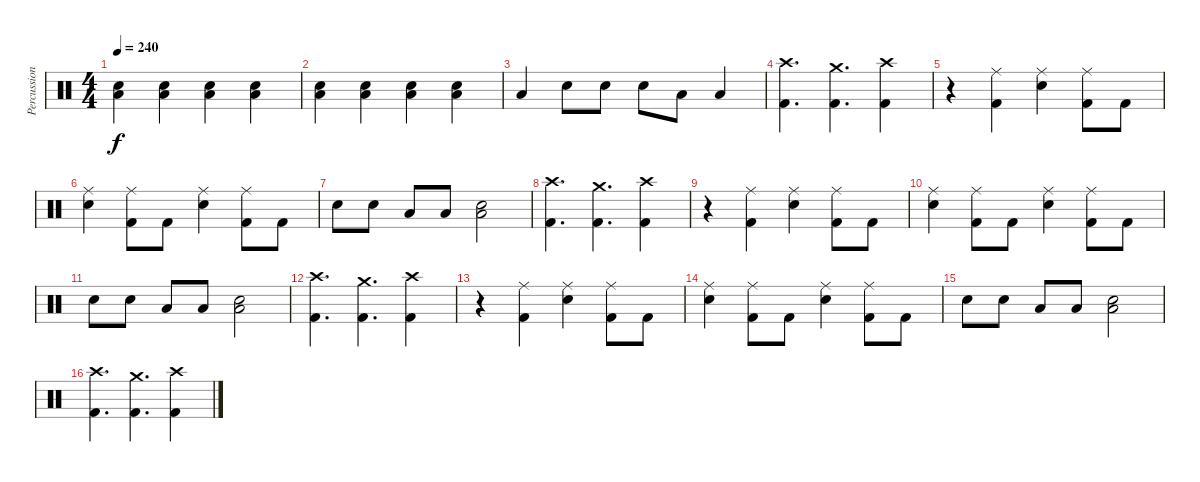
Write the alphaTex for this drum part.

\track ("Percussion" "Percussion") {instrument percussion}
\staff {score}
\articulation defaults
\ts (4 4)
\tempo 240
\clef neutral
\ks c
("Snare (hit) 2" "Low Floor Tom (hit)").4{dy f} ("Snare (hit) 2" "Low Floor Tom (hit)").4 ("Snare (hit) 2" "Low Floor Tom (hit)").4 ("Snare (hit) 2" "Low Floor Tom (hit)").4 |
("Snare (hit) 2" "Low Floor Tom (hit)").4 ("Snare (hit) 2" "Low Floor Tom (hit)").4 ("Snare (hit) 2" "Low Floor Tom (hit)").4 ("Snare (hit) 2" "Low Floor Tom (hit)").4 |
"Low Floor Tom (hit)".4 "Snare (hit) 2".8 "Snare (hit) 2".8 "Snare (hit) 2".8 "Low Tom (hit)".8 "Low Tom (hit)".4 |
("Crash high (hit)" "Kick (hit) 2").4{d} ("Crash medium (hit)" "Kick (hit) 2").4{d} ("Crash high (hit)" "Kick (hit) 2").4 |
r.4 ("Ride (middle)" "Kick (hit) 2").4 ("Ride (middle)" "Snare (hit) 2").4 ("Ride (middle)" "Kick (hit) 2").8 "Kick (hit) 2".8 |
("Ride (middle)" "Snare (hit) 2").4 ("Ride (middle)" "Kick (hit) 2").8 "Kick (hit) 2".8 ("Ride (middle)" "Snare (hit) 2").4 ("Ride (middle)" "Kick (hit) 2").8 "Kick (hit) 2".8 |
"Snare (hit) 2".8 "Snare (hit) 2".8 "Low Tom (hit)".8 "Low Tom (hit)".8 ("Snare (hit) 2" "Low Floor Tom (hit)").2 |
("Crash high (hit)" "Kick (hit) 2").4{d} ("Crash medium (hit)" "Kick (hit) 2").4{d} ("Crash high (hit)" "Kick (hit) 2").4 |
r.4 ("Ride (middle)" "Kick (hit) 2").4 ("Ride (middle)" "Snare (hit) 2").4 ("Ride (middle)" "Kick (hit) 2").8 "Kick (hit) 2".8 |
("Ride (middle)" "Snare (hit) 2").4 ("Ride (middle)" "Kick (hit) 2").8 "Kick (hit) 2".8 ("Ride (middle)" "Snare (hit) 2").4 ("Ride (middle)" "Kick (hit) 2").8 "Kick (hit) 2".8 |
"Snare (hit) 2".8 "Snare (hit) 2".8 "Low Tom (hit)".8 "Low Tom (hit)".8 ("Snare (hit) 2" "Low Floor Tom (hit)").2 |
("Crash high (hit)" "Kick (hit) 2").4{d} ("Crash medium (hit)" "Kick (hit) 2").4{d} ("Crash high (hit)" "Kick (hit) 2").4 |
r.4 ("Ride (middle)" "Kick (hit) 2").4 ("Ride (middle)" "Snare (hit) 2").4 ("Ride (middle)" "Kick (hit) 2").8 "Kick (hit) 2".8 |
("Ride (middle)" "Snare (hit) 2").4 ("Ride (middle)" "Kick (hit) 2").8 "Kick (hit) 2".8 ("Ride (middle)" "Snare (hit) 2").4 ("Ride (middle)" "Kick (hit) 2").8 "Kick (hit) 2".8 |
"Snare (hit) 2".8 "Snare (hit) 2".8 "Low Tom (hit)".8 "Low Tom (hit)".8 ("Snare (hit) 2" "Low Floor Tom (hit)").2 |
("Crash high (hit)" "Kick (hit) 2").4{d} ("Crash medium (hit)" "Kick (hit) 2").4{d} ("Crash high (hit)" "Kick (hit) 2").4
